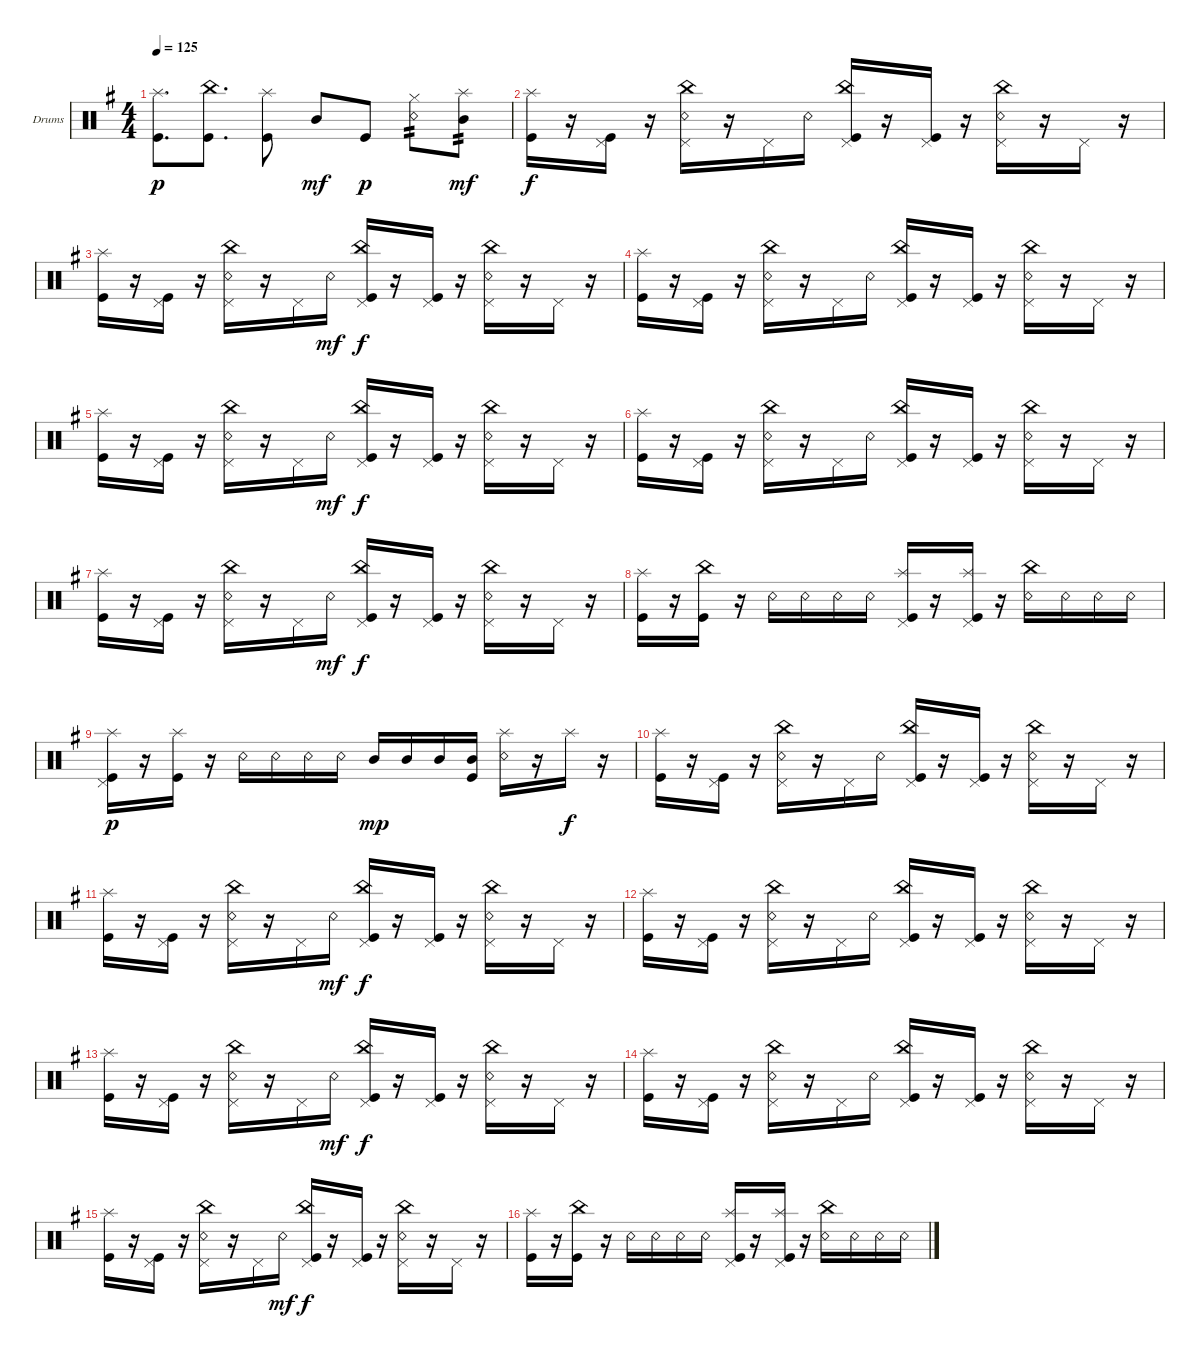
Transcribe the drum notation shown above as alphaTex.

\bracketExtendMode groupsimilarinstruments
\firstSystemTrackNameOrientation horizontal
\otherSystemsTrackNameOrientation horizontal
\track ("Drumkit" "Drums") {instrument percussion}
\staff {score}
\articulation defaults
\ts (4 4)
\tempo 125
\clef neutral
\ks g
("Kick (hit)" "Splash (hit)").8{d dy p} ("Kick (hit)" "China (hit)").8{d} ("Kick (hit)" "Splash (hit)").8 "Mid Tom (hit)".8{dy mf} "Kick (hit)".8{dy p} ("Snare (rim shot)" "Hi-Hat (closed)").8{tp 2} ("Splash (hit)" "Mid Tom (hit)").8{tp 2 dy mf} |
("Kick (hit)" "Splash (hit)").16{dy f} r.16 ("Pedal Hi-Hat (hit)" "Kick (hit)").16 r.16 ("Pedal Hi-Hat (hit)" "Snare (rim shot)" "China (hit)").16 r.16 "Pedal Hi-Hat (hit)".16 "Snare (rim shot)".16 ("Pedal Hi-Hat (hit)" "China (hit)" "Kick (hit)").16 r.16 ("Pedal Hi-Hat (hit)" "Kick (hit)").16 r.16 ("Pedal Hi-Hat (hit)" "China (hit)" "Snare (rim shot)").16 r.16 "Pedal Hi-Hat (hit)".16 r.16 |
("Kick (hit)" "Splash (hit)").16 r.16 ("Pedal Hi-Hat (hit)" "Kick (hit)").16 r.16 ("Pedal Hi-Hat (hit)" "Snare (rim shot)" "China (hit)").16 r.16 "Pedal Hi-Hat (hit)".16 "Snare (rim shot)".16{dy mf} ("Pedal Hi-Hat (hit)" "China (hit)" "Kick (hit)").16{dy f} r.16 ("Pedal Hi-Hat (hit)" "Kick (hit)").16 r.16 ("Pedal Hi-Hat (hit)" "China (hit)" "Snare (rim shot)").16 r.16 "Pedal Hi-Hat (hit)".16 r.16 |
("Kick (hit)" "Splash (hit)").16 r.16 ("Pedal Hi-Hat (hit)" "Kick (hit)").16 r.16 ("Pedal Hi-Hat (hit)" "Snare (rim shot)" "China (hit)").16 r.16 "Pedal Hi-Hat (hit)".16 "Snare (rim shot)".16 ("Pedal Hi-Hat (hit)" "China (hit)" "Kick (hit)").16 r.16 ("Pedal Hi-Hat (hit)" "Kick (hit)").16 r.16 ("Pedal Hi-Hat (hit)" "China (hit)" "Snare (rim shot)").16 r.16 "Pedal Hi-Hat (hit)".16 r.16 |
("Kick (hit)" "Splash (hit)").16 r.16 ("Pedal Hi-Hat (hit)" "Kick (hit)").16 r.16 ("Pedal Hi-Hat (hit)" "Snare (rim shot)" "China (hit)").16 r.16 "Pedal Hi-Hat (hit)".16 "Snare (rim shot)".16{dy mf} ("Pedal Hi-Hat (hit)" "China (hit)" "Kick (hit)").16{dy f} r.16 ("Pedal Hi-Hat (hit)" "Kick (hit)").16 r.16 ("Pedal Hi-Hat (hit)" "China (hit)" "Snare (rim shot)").16 r.16 "Pedal Hi-Hat (hit)".16 r.16 |
("Kick (hit)" "Splash (hit)").16 r.16 ("Pedal Hi-Hat (hit)" "Kick (hit)").16 r.16 ("Pedal Hi-Hat (hit)" "Snare (rim shot)" "China (hit)").16 r.16 "Pedal Hi-Hat (hit)".16 "Snare (rim shot)".16 ("Pedal Hi-Hat (hit)" "China (hit)" "Kick (hit)").16 r.16 ("Pedal Hi-Hat (hit)" "Kick (hit)").16 r.16 ("Pedal Hi-Hat (hit)" "China (hit)" "Snare (rim shot)").16 r.16 "Pedal Hi-Hat (hit)".16 r.16 |
("Kick (hit)" "Splash (hit)").16 r.16 ("Pedal Hi-Hat (hit)" "Kick (hit)").16 r.16 ("Pedal Hi-Hat (hit)" "Snare (rim shot)" "China (hit)").16 r.16 "Pedal Hi-Hat (hit)".16 "Snare (rim shot)".16{dy mf} ("Pedal Hi-Hat (hit)" "China (hit)" "Kick (hit)").16{dy f} r.16 ("Pedal Hi-Hat (hit)" "Kick (hit)").16 r.16 ("Pedal Hi-Hat (hit)" "China (hit)" "Snare (rim shot)").16 r.16 "Pedal Hi-Hat (hit)".16 r.16 |
("Kick (hit)" "Splash (hit)").16 r.16 ("Kick (hit)" "China (hit)").16 r.16 "Snare (rim shot)".16 "Snare (rim shot)".16 "Snare (rim shot)".16 "Snare (rim shot)".16 ("Pedal Hi-Hat (hit)" "Kick (hit)" "Splash (hit)").16 r.16 ("Pedal Hi-Hat (hit)" "Kick (hit)" "Splash (hit)").16 r.16 ("China (hit)" "Snare (rim shot)").16 "Snare (rim shot)".16 "Snare (rim shot)".16 "Snare (rim shot)".16 |
("Pedal Hi-Hat (hit)" "Kick (hit)" "Splash (hit)").16{dy p} r.16 ("Kick (hit)" "Splash (hit)").16 r.16 "Snare (rim shot)".16 "Snare (rim shot)".16 "Snare (rim shot)".16 "Snare (rim shot)".16 "Mid Tom (hit)".16{dy mp} "Mid Tom (hit)".16 "Mid Tom (hit)".16 ("Mid Tom (hit)" "Kick (hit)").16 ("Snare (rim shot)" "Splash (hit)").16 r.16 "Splash (hit)".16{dy f} r.16 |
("Kick (hit)" "Splash (hit)").16 r.16 ("Pedal Hi-Hat (hit)" "Kick (hit)").16 r.16 ("Pedal Hi-Hat (hit)" "Snare (rim shot)" "China (hit)").16 r.16 "Pedal Hi-Hat (hit)".16 "Snare (rim shot)".16 ("Pedal Hi-Hat (hit)" "China (hit)" "Kick (hit)").16 r.16 ("Pedal Hi-Hat (hit)" "Kick (hit)").16 r.16 ("Pedal Hi-Hat (hit)" "China (hit)" "Snare (rim shot)").16 r.16 "Pedal Hi-Hat (hit)".16 r.16 |
("Kick (hit)" "Splash (hit)").16 r.16 ("Pedal Hi-Hat (hit)" "Kick (hit)").16 r.16 ("Pedal Hi-Hat (hit)" "Snare (rim shot)" "China (hit)").16 r.16 "Pedal Hi-Hat (hit)".16 "Snare (rim shot)".16{dy mf} ("Pedal Hi-Hat (hit)" "China (hit)" "Kick (hit)").16{dy f} r.16 ("Pedal Hi-Hat (hit)" "Kick (hit)").16 r.16 ("Pedal Hi-Hat (hit)" "China (hit)" "Snare (rim shot)").16 r.16 "Pedal Hi-Hat (hit)".16 r.16 |
("Kick (hit)" "Splash (hit)").16 r.16 ("Pedal Hi-Hat (hit)" "Kick (hit)").16 r.16 ("Pedal Hi-Hat (hit)" "Snare (rim shot)" "China (hit)").16 r.16 "Pedal Hi-Hat (hit)".16 "Snare (rim shot)".16 ("Pedal Hi-Hat (hit)" "China (hit)" "Kick (hit)").16 r.16 ("Pedal Hi-Hat (hit)" "Kick (hit)").16 r.16 ("Pedal Hi-Hat (hit)" "China (hit)" "Snare (rim shot)").16 r.16 "Pedal Hi-Hat (hit)".16 r.16 |
("Kick (hit)" "Splash (hit)").16 r.16 ("Pedal Hi-Hat (hit)" "Kick (hit)").16 r.16 ("Pedal Hi-Hat (hit)" "Snare (rim shot)" "China (hit)").16 r.16 "Pedal Hi-Hat (hit)".16 "Snare (rim shot)".16{dy mf} ("Pedal Hi-Hat (hit)" "China (hit)" "Kick (hit)").16{dy f} r.16 ("Pedal Hi-Hat (hit)" "Kick (hit)").16 r.16 ("Pedal Hi-Hat (hit)" "China (hit)" "Snare (rim shot)").16 r.16 "Pedal Hi-Hat (hit)".16 r.16 |
("Kick (hit)" "Splash (hit)").16 r.16 ("Pedal Hi-Hat (hit)" "Kick (hit)").16 r.16 ("Pedal Hi-Hat (hit)" "Snare (rim shot)" "China (hit)").16 r.16 "Pedal Hi-Hat (hit)".16 "Snare (rim shot)".16 ("Pedal Hi-Hat (hit)" "China (hit)" "Kick (hit)").16 r.16 ("Pedal Hi-Hat (hit)" "Kick (hit)").16 r.16 ("Pedal Hi-Hat (hit)" "China (hit)" "Snare (rim shot)").16 r.16 "Pedal Hi-Hat (hit)".16 r.16 |
("Kick (hit)" "Splash (hit)").16 r.16 ("Pedal Hi-Hat (hit)" "Kick (hit)").16 r.16 ("Pedal Hi-Hat (hit)" "Snare (rim shot)" "China (hit)").16 r.16 "Pedal Hi-Hat (hit)".16 "Snare (rim shot)".16{dy mf} ("Pedal Hi-Hat (hit)" "China (hit)" "Kick (hit)").16{dy f} r.16 ("Pedal Hi-Hat (hit)" "Kick (hit)").16 r.16 ("Pedal Hi-Hat (hit)" "China (hit)" "Snare (rim shot)").16 r.16 "Pedal Hi-Hat (hit)".16 r.16 |
("Kick (hit)" "Splash (hit)").16 r.16 ("Kick (hit)" "China (hit)").16 r.16 "Snare (rim shot)".16 "Snare (rim shot)".16 "Snare (rim shot)".16 "Snare (rim shot)".16 ("Pedal Hi-Hat (hit)" "Kick (hit)" "Splash (hit)").16 r.16 ("Pedal Hi-Hat (hit)" "Kick (hit)" "Splash (hit)").16 r.16 ("China (hit)" "Snare (rim shot)").16 "Snare (rim shot)".16 "Snare (rim shot)".16 "Snare (rim shot)".16
